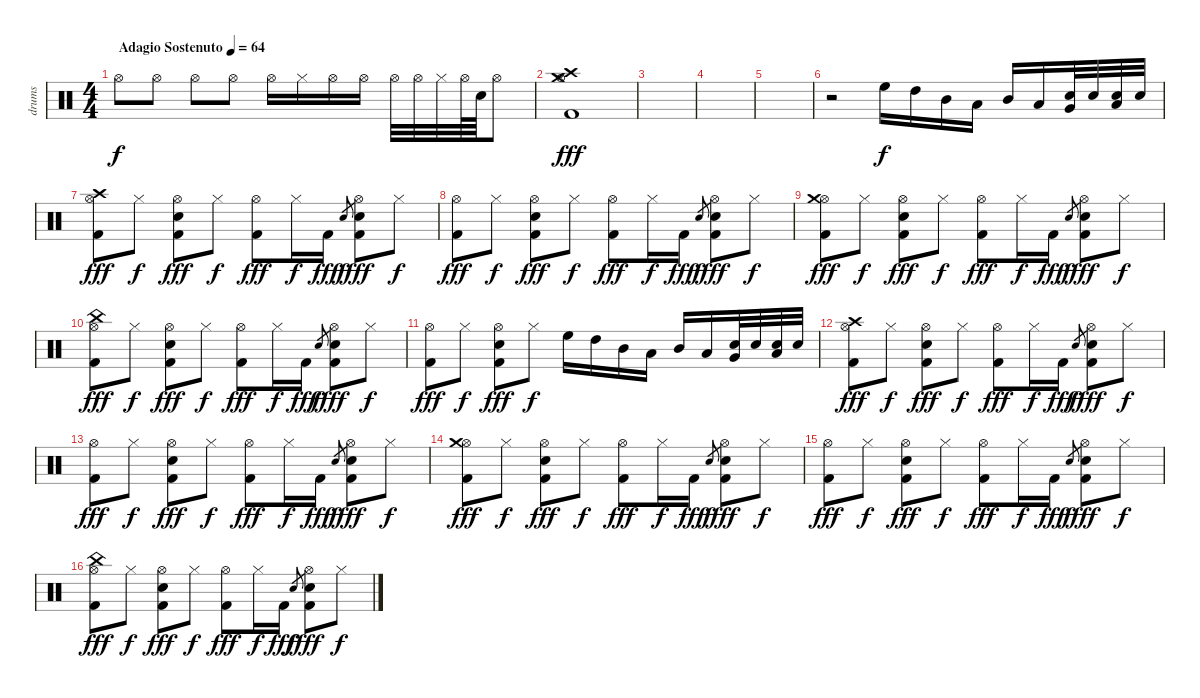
\track ("drums" "drums") {instrument percussion}
\staff {score}
\articulation defaults
\ts (4 4)
\tempo (64 "Adagio Sostenuto")
\clef neutral
\ks c "Hi-Hat (open)".8{dy f} "Hi-Hat (open)".8 "Hi-Hat (open)".8 "Hi-Hat (open)".8 "Hi-Hat (open)".16 "Hi-Hat (closed)".16 "Hi-Hat (open)".16 "Hi-Hat (open)".16 "Hi-Hat (open)".32 "Hi-Hat (open)".32 "Hi-Hat (closed)".32 "Hi-Hat (open)".64 "Electric Snare (hit)".64 "Hi-Hat (open)".8
|
("Kick (hit) 2" "Hi-Hat (open)" "Crash medium (hit)" "Crash high (hit)").1{dy fff} |
|
|
|
r.2 "High Floor Tom (hit)".16{dy f} "High Tom (hit)".16 "Mid Tom (hit)".16 "Low Tom (hit)".16 "Mid Tom (hit)".16 "Low Tom (hit)".16 ("Electric Snare (hit)" "Very Low Tom (hit)").32 "Electric Snare (hit)".32 ("Electric Snare (hit)" "Low Floor Tom (hit)").32 "Electric Snare (hit)".32 |
("Kick (hit) 2" "Hi-Hat (open)" "Crash high (hit)").8{dy fff} "Hi-Hat (closed)".8{dy f} ("Kick (hit) 2" "Hi-Hat (open)" "Electric Snare (hit)").8{dy fff} "Hi-Hat (closed)".8{dy f} ("Kick (hit) 2" "Hi-Hat (open)").8{dy fff} "Hi-Hat (closed)".16{dy f} "Kick (hit) 2".16{dy fff} "Electric Snare (hit)".8{gr dy f} ("Kick (hit) 2" "Hi-Hat (open)" "Electric Snare (hit)").8{dy fff} "Hi-Hat (closed)".8{dy f} |
("Kick (hit) 2" "Hi-Hat (open)").8{dy fff} "Hi-Hat (closed)".8{dy f} ("Kick (hit) 2" "Hi-Hat (open)" "Electric Snare (hit)").8{dy fff} "Hi-Hat (closed)".8{dy f} ("Kick (hit) 2" "Hi-Hat (open)").8{dy fff} "Hi-Hat (closed)".16{dy f} "Kick (hit) 2".16{dy fff} "Electric Snare (hit)".8{gr dy f} ("Kick (hit) 2" "Hi-Hat (open)" "Electric Snare (hit)").8{dy fff} "Hi-Hat (closed)".8{dy f} |
("Kick (hit) 2" "Hi-Hat (open)" "Crash medium (hit)").8{dy fff} "Hi-Hat (closed)".8{dy f} ("Kick (hit) 2" "Hi-Hat (open)" "Electric Snare (hit)").8{dy fff} "Hi-Hat (closed)".8{dy f} ("Kick (hit) 2" "Hi-Hat (open)").8{dy fff} "Hi-Hat (closed)".16{dy f} "Kick (hit) 2".16{dy fff} "Electric Snare (hit)".8{gr dy f} ("Kick (hit) 2" "Hi-Hat (open)" "Electric Snare (hit)").8{dy fff} "Hi-Hat (closed)".8{dy f} |
("Kick (hit) 2" "Hi-Hat (open)" "China (hit)").8{dy fff} "Hi-Hat (closed)".8{dy f} ("Kick (hit) 2" "Hi-Hat (open)" "Electric Snare (hit)").8{dy fff} "Hi-Hat (closed)".8{dy f} ("Kick (hit) 2" "Hi-Hat (open)").8{dy fff} "Hi-Hat (closed)".16{dy f} "Kick (hit) 2".16{dy fff} "Electric Snare (hit)".8{gr dy f} ("Kick (hit) 2" "Hi-Hat (open)" "Electric Snare (hit)").8{dy fff} "Hi-Hat (closed)".8{dy f} |
("Kick (hit) 2" "Hi-Hat (open)").8{dy fff} "Hi-Hat (closed)".8{dy f} ("Kick (hit) 2" "Hi-Hat (open)" "Electric Snare (hit)").8{dy fff} "Hi-Hat (closed)".8{dy f} "High Floor Tom (hit)".16 "High Tom (hit)".16 "Mid Tom (hit)".16 "Low Tom (hit)".16 "Mid Tom (hit)".16 "Low Tom (hit)".16 ("Electric Snare (hit)" "Very Low Tom (hit)").32 "Electric Snare (hit)".32 ("Electric Snare (hit)" "Low Floor Tom (hit)").32 "Electric Snare (hit)".32 |
("Kick (hit) 2" "Hi-Hat (open)" "Crash high (hit)").8{dy fff} "Hi-Hat (closed)".8{dy f} ("Kick (hit) 2" "Hi-Hat (open)" "Electric Snare (hit)").8{dy fff} "Hi-Hat (closed)".8{dy f} ("Kick (hit) 2" "Hi-Hat (open)").8{dy fff} "Hi-Hat (closed)".16{dy f} "Kick (hit) 2".16{dy fff} "Electric Snare (hit)".8{gr dy f} ("Kick (hit) 2" "Hi-Hat (open)" "Electric Snare (hit)").8{dy fff} "Hi-Hat (closed)".8{dy f} |
("Kick (hit) 2" "Hi-Hat (open)").8{dy fff} "Hi-Hat (closed)".8{dy f} ("Kick (hit) 2" "Hi-Hat (open)" "Electric Snare (hit)").8{dy fff} "Hi-Hat (closed)".8{dy f} ("Kick (hit) 2" "Hi-Hat (open)").8{dy fff} "Hi-Hat (closed)".16{dy f} "Kick (hit) 2".16{dy fff} "Electric Snare (hit)".8{gr dy f} ("Kick (hit) 2" "Hi-Hat (open)" "Electric Snare (hit)").8{dy fff} "Hi-Hat (closed)".8{dy f} |
("Kick (hit) 2" "Hi-Hat (open)" "Crash medium (hit)").8{dy fff} "Hi-Hat (closed)".8{dy f} ("Kick (hit) 2" "Hi-Hat (open)" "Electric Snare (hit)").8{dy fff} "Hi-Hat (closed)".8{dy f} ("Kick (hit) 2" "Hi-Hat (open)").8{dy fff} "Hi-Hat (closed)".16{dy f} "Kick (hit) 2".16{dy fff} "Electric Snare (hit)".8{gr dy f} ("Kick (hit) 2" "Hi-Hat (open)" "Electric Snare (hit)").8{dy fff} "Hi-Hat (closed)".8{dy f} |
("Kick (hit) 2" "Hi-Hat (open)").8{dy fff} "Hi-Hat (closed)".8{dy f} ("Kick (hit) 2" "Hi-Hat (open)" "Electric Snare (hit)").8{dy fff} "Hi-Hat (closed)".8{dy f} ("Kick (hit) 2" "Hi-Hat (open)").8{dy fff} "Hi-Hat (closed)".16{dy f} "Kick (hit) 2".16{dy fff} "Electric Snare (hit)".8{gr dy f} ("Kick (hit) 2" "Hi-Hat (open)" "Electric Snare (hit)").8{dy fff} "Hi-Hat (closed)".8{dy f} |
("Kick (hit) 2" "Hi-Hat (open)" "China (hit)").8{dy fff} "Hi-Hat (closed)".8{dy f} ("Kick (hit) 2" "Hi-Hat (open)" "Electric Snare (hit)").8{dy fff} "Hi-Hat (closed)".8{dy f} ("Kick (hit) 2" "Hi-Hat (open)").8{dy fff} "Hi-Hat (closed)".16{dy f} "Kick (hit) 2".16{dy fff} "Electric Snare (hit)".8{gr dy f} ("Kick (hit) 2" "Hi-Hat (open)" "Electric Snare (hit)").8{dy fff} "Hi-Hat (closed)".8{dy f}
